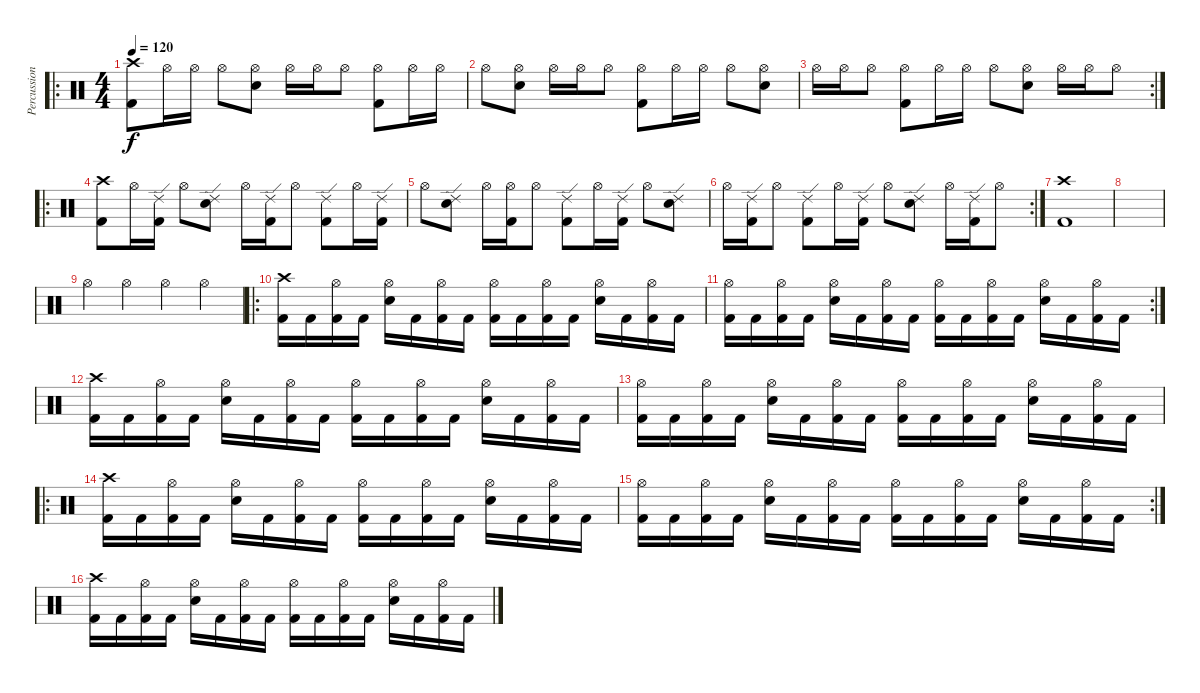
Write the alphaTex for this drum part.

\track ("Percussion" "Percussion") {instrument percussion}
\staff {score}
\articulation defaults
\ro
\ts (4 4)
\tempo 120
\clef neutral
\ks c
("Crash high (hit)" "Kick (hit) 2").8{dy f} "Hi-Hat (open)".16 "Hi-Hat (open)".16 "Hi-Hat (open)".8 ("Hi-Hat (open)" "Snare (hit) 2").8 "Hi-Hat (open)".16 "Hi-Hat (open)".16 "Hi-Hat (open)".8 ("Hi-Hat (open)" "Kick (hit) 2").8 "Hi-Hat (open)".16 "Hi-Hat (open)".16 |
"Hi-Hat (open)".8 ("Hi-Hat (open)" "Snare (hit) 2").8 "Hi-Hat (open)".16 "Hi-Hat (open)".16 "Hi-Hat (open)".8 ("Hi-Hat (open)" "Kick (hit) 2").8 "Hi-Hat (open)".16 "Hi-Hat (open)".16 "Hi-Hat (open)".8 ("Hi-Hat (open)" "Snare (hit) 2").8 |
\rc 2 "Hi-Hat (open)".16 "Hi-Hat (open)".16 "Hi-Hat (open)".8
("Hi-Hat (open)" "Kick (hit) 2").8 "Hi-Hat (open)".16 "Hi-Hat (open)".16 "Hi-Hat (open)".8 ("Hi-Hat (open)" "Snare (hit) 2").8 "Hi-Hat (open)".16 "Hi-Hat (open)".16 "Hi-Hat (open)".8 |
\ro
("Crash high (hit)" "Kick (hit) 2").8 "Hi-Hat (open)".16 ("Ride (edge) 2" "Kick (hit) 2").16 "Hi-Hat (open)".8 ("Ride (edge) 2" "Snare (hit) 2").8 "Hi-Hat (open)".16 ("Ride (edge) 2" "Kick (hit) 2").16 "Hi-Hat (open)".8 ("Ride (edge) 2" "Kick (hit) 2").8 "Hi-Hat (open)".16 ("Ride (edge) 2" "Kick (hit) 2").16 |
"Hi-Hat (open)".8 ("Ride (edge) 2" "Snare (hit) 2").8 "Hi-Hat (open)".16 ("Hi-Hat (open)" "Kick (hit) 2").16 "Hi-Hat (open)".8 ("Ride (edge) 2" "Kick (hit) 2").8 "Hi-Hat (open)".16 ("Ride (edge) 2" "Kick (hit) 2").16 "Hi-Hat (open)".8 ("Ride (edge) 2" "Snare (hit) 2").8 |
\rc 2 "Hi-Hat (open)".16
("Ride (edge) 2" "Kick (hit) 2").16 "Hi-Hat (open)".8 ("Ride (edge) 2" "Kick (hit) 2").8 "Hi-Hat (open)".16 ("Ride (edge) 2" "Kick (hit) 2").16 "Hi-Hat (open)".8 ("Ride (edge) 2" "Snare (hit) 2").8 "Hi-Hat (open)".16 ("Ride (edge) 2" "Kick (hit) 2").16 "Hi-Hat (open)".8 |
("Crash high (hit)" "Kick (hit) 2").1 |
|
"Hi-Hat (open)".4 "Hi-Hat (open)".4 "Hi-Hat (open)".4 "Hi-Hat (open)".4 |
\ro
("Crash high (hit)" "Kick (hit) 2").16 "Kick (hit) 2".16 ("Hi-Hat (open)" "Kick (hit) 2").16 "Kick (hit) 2".16 ("Hi-Hat (open)" "Snare (hit) 2").16 "Kick (hit) 2".16 ("Hi-Hat (open)" "Kick (hit) 2").16 "Kick (hit) 2".16 ("Hi-Hat (open)" "Kick (hit) 2").16 "Kick (hit) 2".16 ("Hi-Hat (open)" "Kick (hit) 2").16 "Kick (hit) 2".16 ("Hi-Hat (open)" "Snare (hit) 2").16 "Kick (hit) 2".16 ("Hi-Hat (open)" "Kick (hit) 2").16 "Kick (hit) 2".16 |
\rc 2
("Hi-Hat (open)" "Kick (hit) 2").16 "Kick (hit) 2".16 ("Hi-Hat (open)" "Kick (hit) 2").16 "Kick (hit) 2".16 ("Hi-Hat (open)" "Snare (hit) 2").16 "Kick (hit) 2".16 ("Hi-Hat (open)" "Kick (hit) 2").16 "Kick (hit) 2".16 ("Hi-Hat (open)" "Kick (hit) 2").16 "Kick (hit) 2".16 ("Hi-Hat (open)" "Kick (hit) 2").16 "Kick (hit) 2".16 ("Hi-Hat (open)" "Snare (hit) 2").16 "Kick (hit) 2".16 ("Hi-Hat (open)" "Kick (hit) 2").16 "Kick (hit) 2".16 |
("Crash high (hit)" "Kick (hit) 2").16 "Kick (hit) 2".16 ("Hi-Hat (open)" "Kick (hit) 2").16 "Kick (hit) 2".16 ("Hi-Hat (open)" "Snare (hit) 2").16 "Kick (hit) 2".16 ("Hi-Hat (open)" "Kick (hit) 2").16 "Kick (hit) 2".16 ("Hi-Hat (open)" "Kick (hit) 2").16 "Kick (hit) 2".16 ("Hi-Hat (open)" "Kick (hit) 2").16 "Kick (hit) 2".16 ("Hi-Hat (open)" "Snare (hit) 2").16 "Kick (hit) 2".16 ("Hi-Hat (open)" "Kick (hit) 2").16 "Kick (hit) 2".16 |
("Hi-Hat (open)" "Kick (hit) 2").16 "Kick (hit) 2".16 ("Hi-Hat (open)" "Kick (hit) 2").16 "Kick (hit) 2".16 ("Hi-Hat (open)" "Snare (hit) 2").16 "Kick (hit) 2".16 ("Hi-Hat (open)" "Kick (hit) 2").16 "Kick (hit) 2".16 ("Hi-Hat (open)" "Kick (hit) 2").16 "Kick (hit) 2".16 ("Hi-Hat (open)" "Kick (hit) 2").16 "Kick (hit) 2".16 ("Hi-Hat (open)" "Snare (hit) 2").16 "Kick (hit) 2".16 ("Hi-Hat (open)" "Kick (hit) 2").16 "Kick (hit) 2".16 |
\ro
("Crash high (hit)" "Kick (hit) 2").16 "Kick (hit) 2".16 ("Hi-Hat (open)" "Kick (hit) 2").16 "Kick (hit) 2".16 ("Hi-Hat (open)" "Snare (hit) 2").16 "Kick (hit) 2".16 ("Hi-Hat (open)" "Kick (hit) 2").16 "Kick (hit) 2".16 ("Hi-Hat (open)" "Kick (hit) 2").16 "Kick (hit) 2".16 ("Hi-Hat (open)" "Kick (hit) 2").16 "Kick (hit) 2".16 ("Hi-Hat (open)" "Snare (hit) 2").16 "Kick (hit) 2".16 ("Hi-Hat (open)" "Kick (hit) 2").16 "Kick (hit) 2".16 |
\rc 2
("Hi-Hat (open)" "Kick (hit) 2").16 "Kick (hit) 2".16 ("Hi-Hat (open)" "Kick (hit) 2").16 "Kick (hit) 2".16 ("Hi-Hat (open)" "Snare (hit) 2").16 "Kick (hit) 2".16 ("Hi-Hat (open)" "Kick (hit) 2").16 "Kick (hit) 2".16 ("Hi-Hat (open)" "Kick (hit) 2").16 "Kick (hit) 2".16 ("Hi-Hat (open)" "Kick (hit) 2").16 "Kick (hit) 2".16 ("Hi-Hat (open)" "Snare (hit) 2").16 "Kick (hit) 2".16 ("Hi-Hat (open)" "Kick (hit) 2").16 "Kick (hit) 2".16 |
("Crash high (hit)" "Kick (hit) 2").16 "Kick (hit) 2".16 ("Hi-Hat (open)" "Kick (hit) 2").16 "Kick (hit) 2".16 ("Hi-Hat (open)" "Snare (hit) 2").16 "Kick (hit) 2".16 ("Hi-Hat (open)" "Kick (hit) 2").16 "Kick (hit) 2".16 ("Hi-Hat (open)" "Kick (hit) 2").16 "Kick (hit) 2".16 ("Hi-Hat (open)" "Kick (hit) 2").16 "Kick (hit) 2".16 ("Hi-Hat (open)" "Snare (hit) 2").16 "Kick (hit) 2".16 ("Hi-Hat (open)" "Kick (hit) 2").16 "Kick (hit) 2".16
